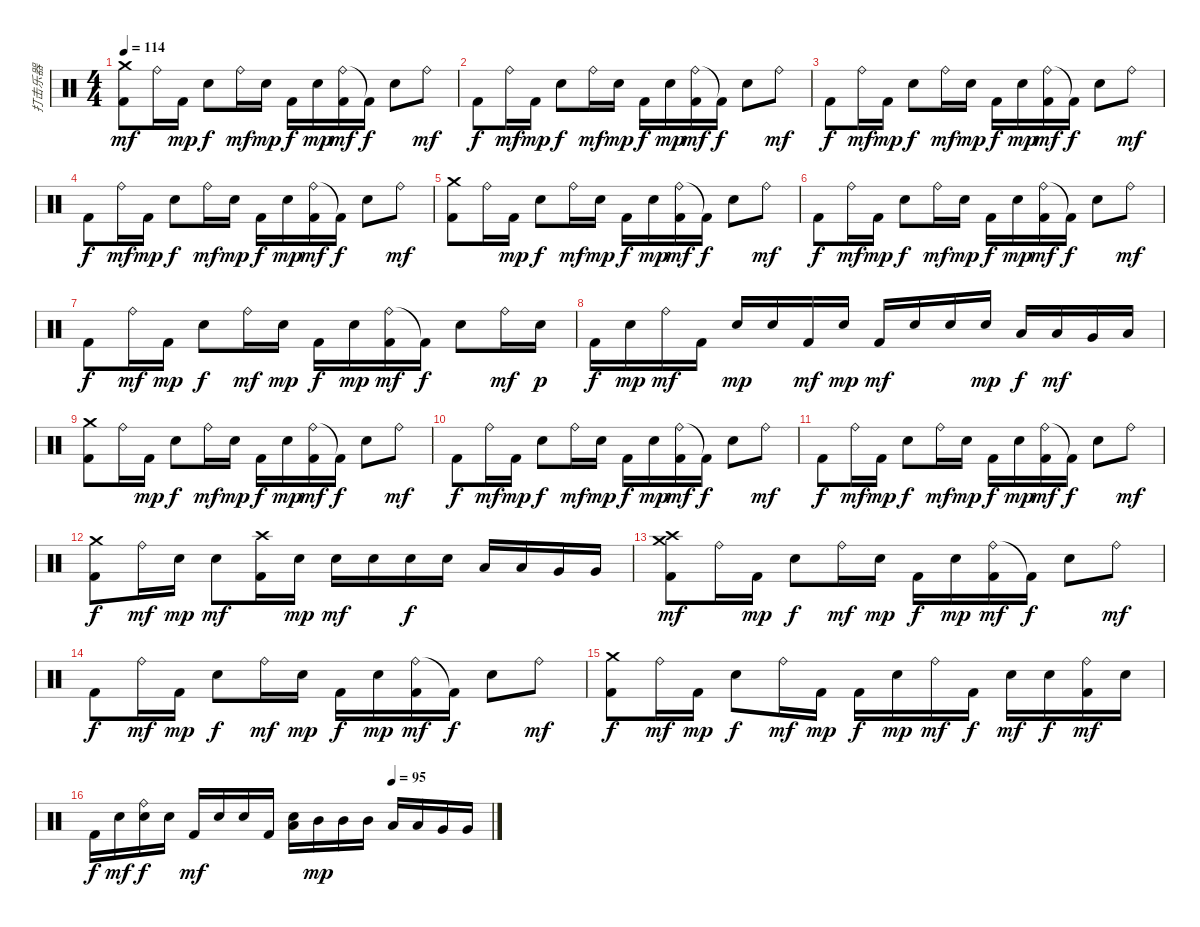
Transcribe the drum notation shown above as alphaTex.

\track ("打击乐器" "打击乐器") {instrument percussion}
\staff {score}
\articulation defaults
\ts (4 4)
\tempo 114
\clef neutral
\ks c
("Crash medium (hit)" "Kick (hit) 2").8{dy mf} "Ride (bell)".16 "Kick (hit) 2".16{dy mp} "Snare (hit) 2".8{dy f} "Ride (bell)".16{dy mf} "Snare (hit) 2".16{dy mp} "Kick (hit) 2".16{dy f} "Snare (hit) 2".16{dy mp} ("Ride (bell)" "Kick (hit) 2").16{dy mf} "Kick (hit) 2"{t}.16{dy f} "Snare (hit) 2".8 "Ride (bell)".8{dy mf} |
"Kick (hit) 2".8{dy f} "Ride (bell)".16{dy mf} "Kick (hit) 2".16{dy mp} "Snare (hit) 2".8{dy f} "Ride (bell)".16{dy mf} "Snare (hit) 2".16{dy mp} "Kick (hit) 2".16{dy f} "Snare (hit) 2".16{dy mp} ("Ride (bell)" "Kick (hit) 2").16{dy mf} "Kick (hit) 2"{t}.16{dy f} "Snare (hit) 2".8 "Ride (bell)".8{dy mf} |
"Kick (hit) 2".8{dy f} "Ride (bell)".16{dy mf} "Kick (hit) 2".16{dy mp} "Snare (hit) 2".8{dy f} "Ride (bell)".16{dy mf} "Snare (hit) 2".16{dy mp} "Kick (hit) 2".16{dy f} "Snare (hit) 2".16{dy mp} ("Ride (bell)" "Kick (hit) 2").16{dy mf} "Kick (hit) 2"{t}.16{dy f} "Snare (hit) 2".8 "Ride (bell)".8{dy mf} |
"Kick (hit) 2".8{dy f} "Ride (bell)".16{dy mf} "Kick (hit) 2".16{dy mp} "Snare (hit) 2".8{dy f} "Ride (bell)".16{dy mf} "Snare (hit) 2".16{dy mp} "Kick (hit) 2".16{dy f} "Snare (hit) 2".16{dy mp} ("Ride (bell)" "Kick (hit) 2").16{dy mf} "Kick (hit) 2"{t}.16{dy f} "Snare (hit) 2".8 "Ride (bell)".8{dy mf} |
("Crash medium (hit)" "Kick (hit) 2").8 "Ride (bell)".16 "Kick (hit) 2".16{dy mp} "Snare (hit) 2".8{dy f} "Ride (bell)".16{dy mf} "Snare (hit) 2".16{dy mp} "Kick (hit) 2".16{dy f} "Snare (hit) 2".16{dy mp} ("Ride (bell)" "Kick (hit) 2").16{dy mf} "Kick (hit) 2"{t}.16{dy f} "Snare (hit) 2".8 "Ride (bell)".8{dy mf} |
"Kick (hit) 2".8{dy f} "Ride (bell)".16{dy mf} "Kick (hit) 2".16{dy mp} "Snare (hit) 2".8{dy f} "Ride (bell)".16{dy mf} "Snare (hit) 2".16{dy mp} "Kick (hit) 2".16{dy f} "Snare (hit) 2".16{dy mp} ("Ride (bell)" "Kick (hit) 2").16{dy mf} "Kick (hit) 2"{t}.16{dy f} "Snare (hit) 2".8 "Ride (bell)".8{dy mf} |
"Kick (hit) 2".8{dy f} "Ride (bell)".16{dy mf} "Kick (hit) 2".16{dy mp} "Snare (hit) 2".8{dy f} "Ride (bell)".16{dy mf} "Snare (hit) 2".16{dy mp} "Kick (hit) 2".16{dy f} "Snare (hit) 2".16{dy mp} ("Ride (bell)" "Kick (hit) 2").16{dy mf} "Kick (hit) 2"{t}.16{dy f} "Snare (hit) 2".8 "Ride (bell)".16{dy mf} "Snare (hit) 2".16{dy p} |
"Kick (hit) 2".16{dy f} "Snare (hit) 2".16{dy mp} "Ride (bell)".16{dy mf} "Kick (hit) 2".16 "Snare (hit) 2".16{dy mp} "Snare (hit) 2".16 "Kick (hit) 2".16{dy mf} "Snare (hit) 2".16{dy mp} "Kick (hit) 2".16{dy mf} "Snare (hit) 2".16 "Snare (hit) 2".16 "Snare (hit) 2".16{dy mp} "Low Tom (hit)".16{dy f} "Low Tom (hit)".16{dy mf} "Very Low Tom (hit)".16 "Low Floor Tom (hit)".16 |
("Crash medium (hit)" "Kick (hit) 2").8 "Ride (bell)".16 "Kick (hit) 2".16{dy mp} "Snare (hit) 2".8{dy f} "Ride (bell)".16{dy mf} "Snare (hit) 2".16{dy mp} "Kick (hit) 2".16{dy f} "Snare (hit) 2".16{dy mp} ("Ride (bell)" "Kick (hit) 2").16{dy mf} "Kick (hit) 2"{t}.16{dy f} "Snare (hit) 2".8 "Ride (bell)".8{dy mf} |
"Kick (hit) 2".8{dy f} "Ride (bell)".16{dy mf} "Kick (hit) 2".16{dy mp} "Snare (hit) 2".8{dy f} "Ride (bell)".16{dy mf} "Snare (hit) 2".16{dy mp} "Kick (hit) 2".16{dy f} "Snare (hit) 2".16{dy mp} ("Ride (bell)" "Kick (hit) 2").16{dy mf} "Kick (hit) 2"{t}.16{dy f} "Snare (hit) 2".8 "Ride (bell)".8{dy mf} |
"Kick (hit) 2".8{dy f} "Ride (bell)".16{dy mf} "Kick (hit) 2".16{dy mp} "Snare (hit) 2".8{dy f} "Ride (bell)".16{dy mf} "Snare (hit) 2".16{dy mp} "Kick (hit) 2".16{dy f} "Snare (hit) 2".16{dy mp} ("Ride (bell)" "Kick (hit) 2").16{dy mf} "Kick (hit) 2"{t}.16{dy f} "Snare (hit) 2".8 "Ride (bell)".8{dy mf} |
("Crash medium (hit)" "Kick (hit) 2").8{dy f} "Ride (bell)".16{dy mf} "Snare (hit) 2".16{dy mp} "Snare (hit) 2".8{dy mf} ("Crash high (hit)" "Kick (hit) 2").16 "Snare (hit) 2".16{dy mp} "Snare (hit) 2".16{dy mf} "Snare (hit) 2".16 "Snare (hit) 2".16{dy f} "Snare (hit) 2".16 "Low Tom (hit)".16 "Low Tom (hit)".16 "Very Low Tom (hit)".16 "Very Low Tom (hit)".16 |
("Crash high (hit)" "Crash medium (hit)" "Kick (hit) 2").8{dy mf} "Ride (bell)".16 "Kick (hit) 2".16{dy mp} "Snare (hit) 2".8{dy f} "Ride (bell)".16{dy mf} "Snare (hit) 2".16{dy mp} "Kick (hit) 2".16{dy f} "Snare (hit) 2".16{dy mp} ("Ride (bell)" "Kick (hit) 2").16{dy mf} "Kick (hit) 2"{t}.16{dy f} "Snare (hit) 2".8 "Ride (bell)".8{dy mf} |
"Kick (hit) 2".8{dy f} "Ride (bell)".16{dy mf} "Kick (hit) 2".16{dy mp} "Snare (hit) 2".8{dy f} "Ride (bell)".16{dy mf} "Snare (hit) 2".16{dy mp} "Kick (hit) 2".16{dy f} "Snare (hit) 2".16{dy mp} ("Ride (bell)" "Kick (hit) 2").16{dy mf} "Kick (hit) 2"{t}.16{dy f} "Snare (hit) 2".8 "Ride (bell)".8{dy mf} |
("Crash medium (hit)" "Kick (hit) 2").8{dy f} "Ride (bell)".16{dy mf} "Kick (hit) 2".16{dy mp} "Snare (hit) 2".8{dy f} "Ride (bell)".16{dy mf} "Kick (hit) 2".16{dy mp} "Kick (hit) 2".16{dy f} "Snare (hit) 2".16{dy mp} "Ride (bell)".16{dy mf} "Kick (hit) 2".16{dy f} "Snare (hit) 2".16{dy mf} "Snare (hit) 2".16{dy f} ("Ride (bell)" "Kick (hit) 2").16{dy mf} "Snare (hit) 2".16 |
\tempo (95 0.75)
"Kick (hit) 2".16{dy f} "Snare (hit) 2".16{dy mf} ("Ride (bell)" "Snare (hit) 2").16{dy f} "Snare (hit) 2".16 "Kick (hit) 2".16{dy mf} "Snare (hit) 2".16 "Snare (hit) 2".16 "Kick (hit) 2".16 ("Low Tom (hit)" "Snare (hit) 2").16 "Mid Tom (hit)".16{dy mp} "Mid Tom (hit)".16 "Mid Tom (hit)".16 "Low Tom (hit)".16 "Low Tom (hit)".16 "Very Low Tom (hit)".16 "Very Low Tom (hit)".16
